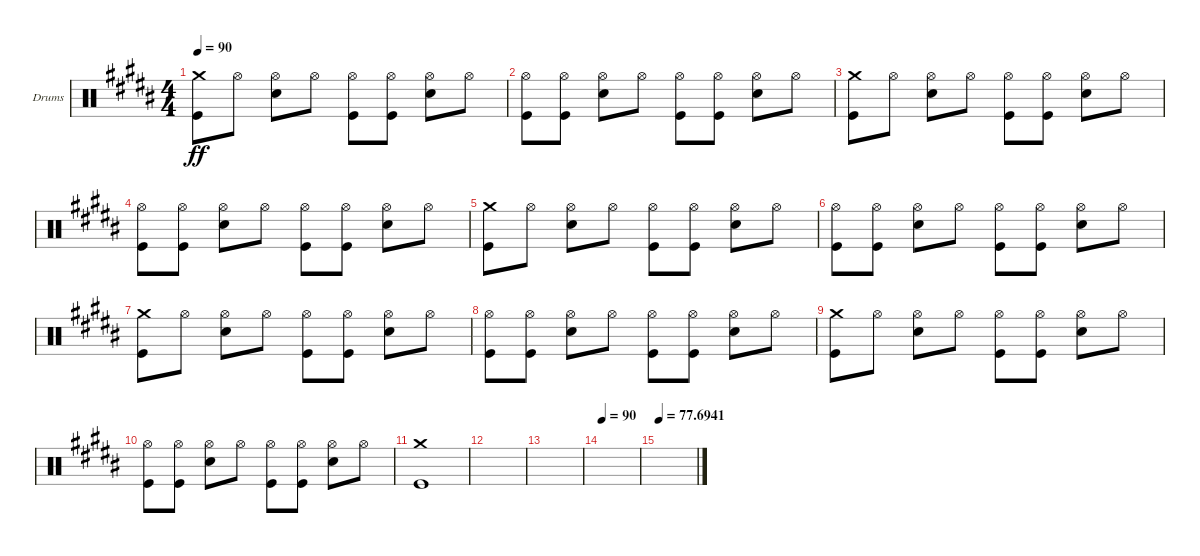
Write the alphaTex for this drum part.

\defaultSystemsLayout 4
\bracketExtendMode groupsimilarinstruments
\firstSystemTrackNameOrientation horizontal
\otherSystemsTrackNameOrientation horizontal
\track ("Drumkit" "Drums") {instrument percussion}
\staff {score}
\articulation defaults
\ts (4 4)
\tempo 90
\clef neutral
\ks b
("Kick (hit)" "Crash medium (hit)").8{dy ff} "Hi-Hat (open)".8 ("Hi-Hat (open)" "Snare (hit) 2").8 "Hi-Hat (open)".8 ("Hi-Hat (open)" "Kick (hit)").8 ("Hi-Hat (open)" "Kick (hit)").8 ("Hi-Hat (open)" "Snare (hit) 2").8 "Hi-Hat (open)".8 |
("Kick (hit)" "Hi-Hat (open)").8 ("Hi-Hat (open)" "Kick (hit)").8 ("Hi-Hat (open)" "Snare (hit) 2").8 "Hi-Hat (open)".8 ("Hi-Hat (open)" "Kick (hit)").8 ("Hi-Hat (open)" "Kick (hit)").8 ("Hi-Hat (open)" "Snare (hit) 2").8 "Hi-Hat (open)".8 |
("Crash medium (hit)" "Kick (hit)").8 "Hi-Hat (open)".8 ("Hi-Hat (open)" "Snare (hit) 2").8 "Hi-Hat (open)".8 ("Hi-Hat (open)" "Kick (hit)").8 ("Hi-Hat (open)" "Kick (hit)").8 ("Hi-Hat (open)" "Snare (hit) 2").8 "Hi-Hat (open)".8 |
("Kick (hit)" "Hi-Hat (open)").8 ("Hi-Hat (open)" "Kick (hit)").8 ("Hi-Hat (open)" "Snare (hit) 2").8 "Hi-Hat (open)".8 ("Hi-Hat (open)" "Kick (hit)").8 ("Hi-Hat (open)" "Kick (hit)").8 ("Hi-Hat (open)" "Snare (hit) 2").8 "Hi-Hat (open)".8 |
("Kick (hit)" "Crash medium (hit)").8 "Hi-Hat (open)".8 ("Hi-Hat (open)" "Snare (hit) 2").8 "Hi-Hat (open)".8 ("Hi-Hat (open)" "Kick (hit)").8 ("Hi-Hat (open)" "Kick (hit)").8 ("Hi-Hat (open)" "Snare (hit) 2").8 "Hi-Hat (open)".8 |
("Kick (hit)" "Hi-Hat (open)").8 ("Hi-Hat (open)" "Kick (hit)").8 ("Hi-Hat (open)" "Snare (hit) 2").8 "Hi-Hat (open)".8 ("Hi-Hat (open)" "Kick (hit)").8 ("Hi-Hat (open)" "Kick (hit)").8 ("Hi-Hat (open)" "Snare (hit) 2").8 "Hi-Hat (open)".8 |
("Kick (hit)" "Crash medium (hit)").8 "Hi-Hat (open)".8 ("Hi-Hat (open)" "Snare (hit) 2").8 "Hi-Hat (open)".8 ("Hi-Hat (open)" "Kick (hit)").8 ("Hi-Hat (open)" "Kick (hit)").8 ("Hi-Hat (open)" "Snare (hit) 2").8 "Hi-Hat (open)".8 |
("Kick (hit)" "Hi-Hat (open)").8 ("Hi-Hat (open)" "Kick (hit)").8 ("Hi-Hat (open)" "Snare (hit) 2").8 "Hi-Hat (open)".8 ("Hi-Hat (open)" "Kick (hit)").8 ("Hi-Hat (open)" "Kick (hit)").8 ("Hi-Hat (open)" "Snare (hit) 2").8 "Hi-Hat (open)".8 |
("Crash medium (hit)" "Kick (hit)").8 "Hi-Hat (open)".8 ("Hi-Hat (open)" "Snare (hit) 2").8 "Hi-Hat (open)".8 ("Hi-Hat (open)" "Kick (hit)").8 ("Hi-Hat (open)" "Kick (hit)").8 ("Hi-Hat (open)" "Snare (hit) 2").8 "Hi-Hat (open)".8 |
("Kick (hit)" "Hi-Hat (open)").8 ("Hi-Hat (open)" "Kick (hit)").8 ("Hi-Hat (open)" "Snare (hit) 2").8 "Hi-Hat (open)".8 ("Hi-Hat (open)" "Kick (hit)").8 ("Hi-Hat (open)" "Kick (hit)").8 ("Hi-Hat (open)" "Snare (hit) 2").8 "Hi-Hat (open)".8 |
("Kick (hit)" "Crash medium (hit)").1 |
|
|
\tempo 90
|
\tempo
77.6941
